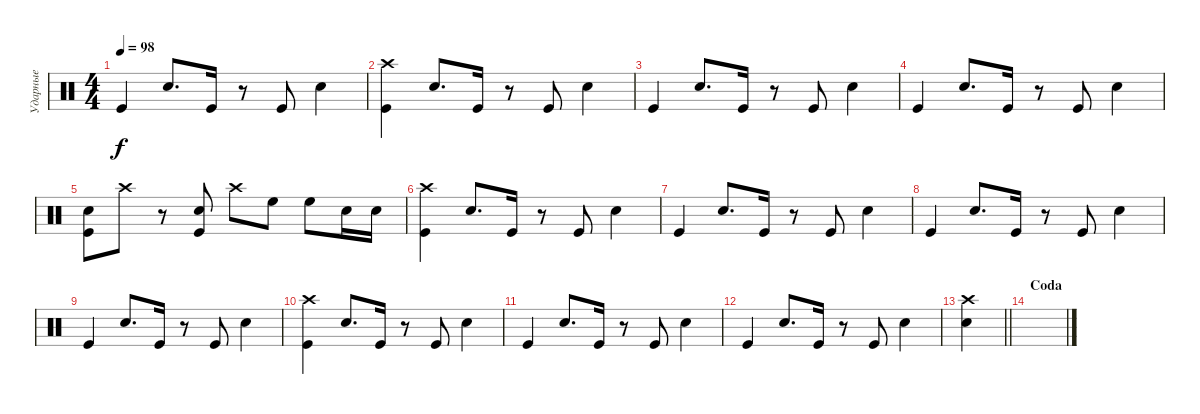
\track ("Ударные" "Ударные") {instrument percussion}
\staff {score}
\articulation defaults
\ts (4 4)
\tempo 98
\clef neutral
\ks c "Kick (hit)".4{dy f} "Snare (hit) 2".8{d} "Kick (hit)".16
r.8 "Kick (hit)".8 "Snare (hit) 2".4 |
("Crash high (hit)" "Kick (hit)").4 "Snare (hit) 2".8{d} "Kick (hit)".16 r.8 "Kick (hit)".8 "Snare (hit) 2".4 |
"Kick (hit)".4 "Snare (hit) 2".8{d} "Kick (hit)".16 r.8 "Kick (hit)".8 "Snare (hit) 2".4 |
"Kick (hit)".4 "Snare (hit) 2".8{d} "Kick (hit)".16 r.8 "Kick (hit)".8 "Snare (hit) 2".4 |
("Snare (hit) 2" "Kick (hit)").8 "Crash high (hit)".8 r.8 ("Snare (hit) 2" "Kick (hit)").8 "Crash high (hit)".8 "High Floor Tom (hit)".8 "High Floor Tom (hit)".8 "Snare (hit) 2".16 "Snare (hit) 2".16 |
("Crash high (hit)" "Kick (hit)").4 "Snare (hit) 2".8{d} "Kick (hit)".16 r.8 "Kick (hit)".8 "Snare (hit) 2".4 |
"Kick (hit)".4 "Snare (hit) 2".8{d} "Kick (hit)".16 r.8 "Kick (hit)".8 "Snare (hit) 2".4 |
"Kick (hit)".4 "Snare (hit) 2".8{d} "Kick (hit)".16 r.8 "Kick (hit)".8 "Snare (hit) 2".4 |
"Kick (hit)".4 "Snare (hit) 2".8{d} "Kick (hit)".16 r.8 "Kick (hit)".8 "Snare (hit) 2".4 |
("Crash high (hit)" "Kick (hit)").4 "Snare (hit) 2".8{d} "Kick (hit)".16 r.8 "Kick (hit)".8 "Snare (hit) 2".4 |
"Kick (hit)".4 "Snare (hit) 2".8{d} "Kick (hit)".16 r.8 "Kick (hit)".8 "Snare (hit) 2".4 |
"Kick (hit)".4 "Snare (hit) 2".8{d} "Kick (hit)".16 r.8 "Kick (hit)".8 "Snare (hit) 2".4 |
\barLineRight lightlight
("Crash high (hit)" "Snare (hit) 2").4 |
\section ("" "Coda")
